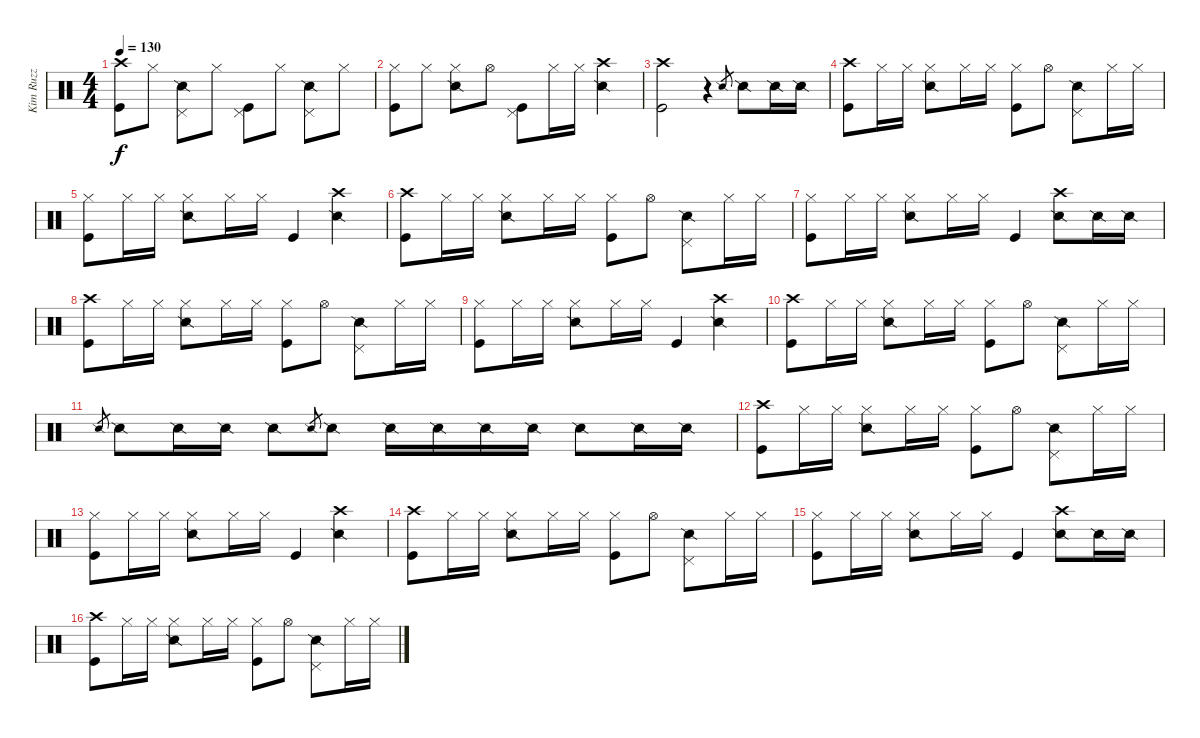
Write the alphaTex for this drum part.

\track ("Kim Ruzz" "Kim Ruzz") {instrument percussion}
\staff {score}
\articulation defaults
\ts (4 4)
\tempo 130
\clef neutral
\ks c
("Crash high (hit)" "Kick (hit)").8{dy f} "Hi-Hat (closed)".8 ("Pedal Hi-Hat (hit)" "Snare (side stick) 2").8 "Hi-Hat (closed)".8 ("Pedal Hi-Hat (hit)" "Kick (hit)").8 "Hi-Hat (closed)".8 ("Pedal Hi-Hat (hit)" "Snare (side stick) 2").8 "Hi-Hat (closed)".8 |
("Hi-Hat (closed)" "Kick (hit)").8 "Hi-Hat (closed)".8 ("Hi-Hat (closed)" "Snare (side stick) 2").8 "Hi-Hat (open)".8 ("Pedal Hi-Hat (hit)" "Kick (hit)").8 "Hi-Hat (closed)".16 "Hi-Hat (closed)".16 ("Crash high (hit)" "Snare (side stick) 2").4 |
("Crash high (hit)" "Kick (hit)").2 r.4 "Snare (side stick) 2".8{gr} "Snare (side stick) 2".8 "Snare (side stick) 2".16 "Snare (side stick) 2".16 |
("Crash high (hit)" "Kick (hit)").8 "Hi-Hat (closed)".16 "Hi-Hat (closed)".16 ("Hi-Hat (closed)" "Snare (side stick) 2").8 "Hi-Hat (closed)".16 "Hi-Hat (closed)".16 ("Hi-Hat (closed)" "Kick (hit)").8 "Hi-Hat (open)".8 ("Pedal Hi-Hat (hit)" "Snare (side stick) 2").8 "Hi-Hat (closed)".16 "Hi-Hat (closed)".16 |
("Hi-Hat (closed)" "Kick (hit)").8 "Hi-Hat (closed)".16 "Hi-Hat (closed)".16 ("Hi-Hat (closed)" "Snare (side stick) 2").8 "Hi-Hat (closed)".16 "Hi-Hat (closed)".16 "Kick (hit)".4 ("Crash high (hit)" "Snare (side stick) 2").4 |
("Crash high (hit)" "Kick (hit)").8 "Hi-Hat (closed)".16 "Hi-Hat (closed)".16 ("Hi-Hat (closed)" "Snare (side stick) 2").8 "Hi-Hat (closed)".16 "Hi-Hat (closed)".16 ("Hi-Hat (closed)" "Kick (hit)").8 "Hi-Hat (open)".8 ("Pedal Hi-Hat (hit)" "Snare (side stick) 2").8 "Hi-Hat (closed)".16 "Hi-Hat (closed)".16 |
("Hi-Hat (closed)" "Kick (hit)").8 "Hi-Hat (closed)".16 "Hi-Hat (closed)".16 ("Hi-Hat (closed)" "Snare (side stick) 2").8 "Hi-Hat (closed)".16 "Hi-Hat (closed)".16 "Kick (hit)".4 ("Crash high (hit)" "Snare (side stick) 2").8 "Snare (side stick) 2".16 "Snare (side stick) 2".16 |
("Crash high (hit)" "Kick (hit)").8 "Hi-Hat (closed)".16 "Hi-Hat (closed)".16 ("Hi-Hat (closed)" "Snare (side stick) 2").8 "Hi-Hat (closed)".16 "Hi-Hat (closed)".16 ("Hi-Hat (closed)" "Kick (hit)").8 "Hi-Hat (open)".8 ("Pedal Hi-Hat (hit)" "Snare (side stick) 2").8 "Hi-Hat (closed)".16 "Hi-Hat (closed)".16 |
("Hi-Hat (closed)" "Kick (hit)").8 "Hi-Hat (closed)".16 "Hi-Hat (closed)".16 ("Hi-Hat (closed)" "Snare (side stick) 2").8 "Hi-Hat (closed)".16 "Hi-Hat (closed)".16 "Kick (hit)".4 ("Crash high (hit)" "Snare (side stick) 2").4 |
("Crash high (hit)" "Kick (hit)").8 "Hi-Hat (closed)".16 "Hi-Hat (closed)".16 ("Hi-Hat (closed)" "Snare (side stick) 2").8 "Hi-Hat (closed)".16 "Hi-Hat (closed)".16 ("Hi-Hat (closed)" "Kick (hit)").8 "Hi-Hat (open)".8 ("Pedal Hi-Hat (hit)" "Snare (side stick) 2").8 "Hi-Hat (closed)".16 "Hi-Hat (closed)".16 |
"Snare (side stick) 2".8{gr} "Snare (side stick) 2".8 "Snare (side stick) 2".16 "Snare (side stick) 2".16 "Snare (side stick) 2".8 "Snare (side stick) 2".8{gr} "Snare (side stick) 2".8 "Snare (side stick) 2".16 "Snare (side stick) 2".16 "Snare (side stick) 2".16 "Snare (side stick) 2".16 "Snare (side stick) 2".8 "Snare (side stick) 2".16 "Snare (side stick) 2".16 |
("Crash high (hit)" "Kick (hit)").8 "Hi-Hat (closed)".16 "Hi-Hat (closed)".16 ("Hi-Hat (closed)" "Snare (side stick) 2").8 "Hi-Hat (closed)".16 "Hi-Hat (closed)".16 ("Hi-Hat (closed)" "Kick (hit)").8 "Hi-Hat (open)".8 ("Pedal Hi-Hat (hit)" "Snare (side stick) 2").8 "Hi-Hat (closed)".16 "Hi-Hat (closed)".16 |
("Hi-Hat (closed)" "Kick (hit)").8 "Hi-Hat (closed)".16 "Hi-Hat (closed)".16 ("Hi-Hat (closed)" "Snare (side stick) 2").8 "Hi-Hat (closed)".16 "Hi-Hat (closed)".16 "Kick (hit)".4 ("Crash high (hit)" "Snare (side stick) 2").4 |
("Crash high (hit)" "Kick (hit)").8 "Hi-Hat (closed)".16 "Hi-Hat (closed)".16 ("Hi-Hat (closed)" "Snare (side stick) 2").8 "Hi-Hat (closed)".16 "Hi-Hat (closed)".16 ("Hi-Hat (closed)" "Kick (hit)").8 "Hi-Hat (open)".8 ("Pedal Hi-Hat (hit)" "Snare (side stick) 2").8 "Hi-Hat (closed)".16 "Hi-Hat (closed)".16 |
("Hi-Hat (closed)" "Kick (hit)").8 "Hi-Hat (closed)".16 "Hi-Hat (closed)".16 ("Hi-Hat (closed)" "Snare (side stick) 2").8 "Hi-Hat (closed)".16 "Hi-Hat (closed)".16 "Kick (hit)".4 ("Crash high (hit)" "Snare (side stick) 2").8 "Snare (side stick) 2".16 "Snare (side stick) 2".16 |
("Crash high (hit)" "Kick (hit)").8 "Hi-Hat (closed)".16 "Hi-Hat (closed)".16 ("Hi-Hat (closed)" "Snare (side stick) 2").8 "Hi-Hat (closed)".16 "Hi-Hat (closed)".16 ("Hi-Hat (closed)" "Kick (hit)").8 "Hi-Hat (open)".8 ("Pedal Hi-Hat (hit)" "Snare (side stick) 2").8 "Hi-Hat (closed)".16 "Hi-Hat (closed)".16
